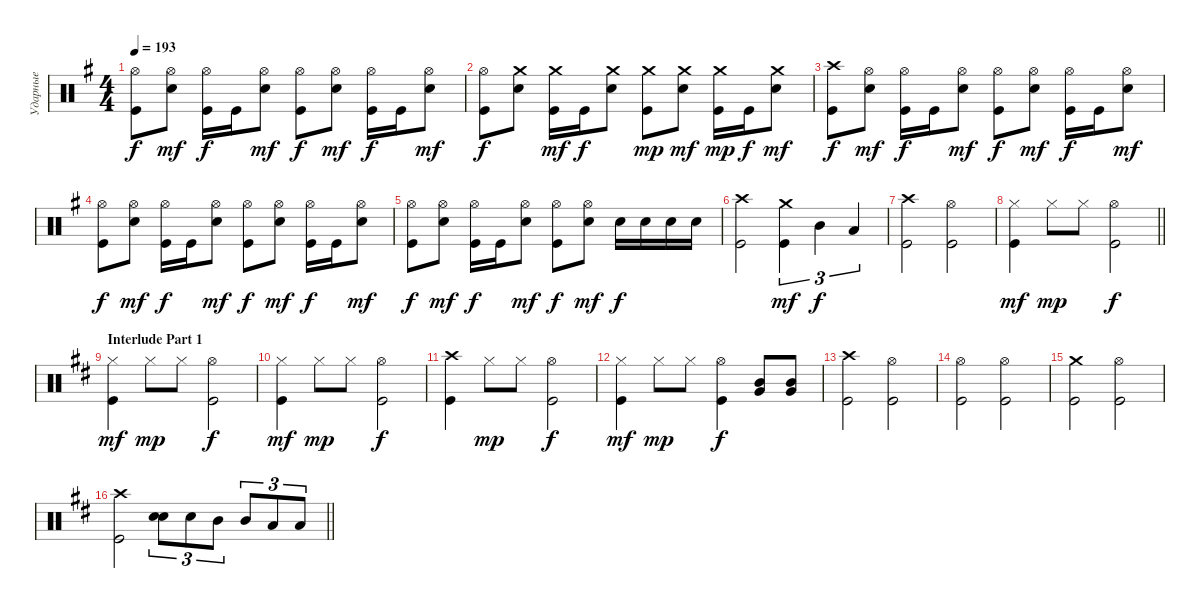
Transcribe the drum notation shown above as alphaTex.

\track ("Ударные" "Ударные") {instrument percussion}
\staff {score}
\articulation defaults
\ts (4 4)
\tempo 193
\clef neutral
\ks eminor
("Kick (hit)" "Hi-Hat (open)").8{dy f} ("Snare (hit) 2" "Hi-Hat (open)").8{dy mf} ("Kick (hit)" "Hi-Hat (open)").16{dy f} "Kick (hit)".16 ("Snare (hit) 2" "Hi-Hat (open)").8{dy mf} ("Kick (hit)" "Hi-Hat (open)").8{dy f} ("Snare (hit) 2" "Hi-Hat (open)").8{dy mf} ("Kick (hit)" "Hi-Hat (open)").16{dy f} "Kick (hit)".16 ("Snare (hit) 2" "Hi-Hat (open)").8{dy mf} |
("Kick (hit)" "Hi-Hat (open)").8{dy f} ("Snare (hit) 2" "Crash medium (hit)").8 ("Kick (hit)" "Crash medium (hit)").16{dy mf} "Kick (hit)".16{dy f} ("Snare (hit) 2" "Crash medium (hit)").8 ("Kick (hit)" "Crash medium (hit)").8{dy mp} ("Snare (hit) 2" "Crash medium (hit)").8{dy mf} ("Kick (hit)" "Crash medium (hit)").16{dy mp} "Kick (hit)".16{dy f} ("Snare (hit) 2" "Crash medium (hit)").8{dy mf} |
("Kick (hit)" "Crash high (hit)").8{dy f} ("Snare (hit) 2" "Hi-Hat (open)").8{dy mf} ("Kick (hit)" "Hi-Hat (open)").16{dy f} "Kick (hit)".16 ("Snare (hit) 2" "Hi-Hat (open)").8{dy mf} ("Kick (hit)" "Hi-Hat (open)").8{dy f} ("Snare (hit) 2" "Hi-Hat (open)").8{dy mf} ("Kick (hit)" "Hi-Hat (open)").16{dy f} "Kick (hit)".16 ("Snare (hit) 2" "Hi-Hat (open)").8{dy mf} |
("Kick (hit)" "Hi-Hat (open)").8{dy f} ("Snare (hit) 2" "Hi-Hat (open)").8{dy mf} ("Kick (hit)" "Hi-Hat (open)").16{dy f} "Kick (hit)".16 ("Snare (hit) 2" "Hi-Hat (open)").8{dy mf} ("Kick (hit)" "Hi-Hat (open)").8{dy f} ("Snare (hit) 2" "Hi-Hat (open)").8{dy mf} ("Kick (hit)" "Hi-Hat (open)").16{dy f} "Kick (hit)".16 ("Snare (hit) 2" "Hi-Hat (open)").8{dy mf} |
("Kick (hit)" "Hi-Hat (open)").8{dy f} ("Snare (hit) 2" "Hi-Hat (open)").8{dy mf} ("Kick (hit)" "Hi-Hat (open)").16{dy f} "Kick (hit)".16 ("Snare (hit) 2" "Hi-Hat (open)").8{dy mf} ("Kick (hit)" "Hi-Hat (open)").8{dy f} ("Snare (hit) 2" "Hi-Hat (open)").8{dy mf} "Snare (hit) 2".16{dy f} "Snare (hit) 2".16 "Snare (hit) 2".16 "Snare (hit) 2".16 |
("Kick (hit)" "Crash high (hit)").2 ("Kick (hit)" "Crash medium (hit)").4{tu (3 2) dy mf} "Mid Tom (hit)".4{tu (3 2) dy f} "Low Tom (hit)".4{tu (3 2)} |
("Kick (hit)" "Crash high (hit)").2 ("Hi-Hat (open)" "Kick (hit)").2 |
\barLineRight lightlight
("Hi-Hat (closed)" "Kick (hit)").4{dy mf} "Hi-Hat (closed)".8{dy mp} "Hi-Hat (closed)".8 ("Hi-Hat (open)" "Kick (hit)").2{dy f} |
\section ("" "Interlude Part 1")
\ks bminor
("Hi-Hat (closed)" "Kick (hit)").4{dy mf} "Hi-Hat (closed)".8{dy mp} "Hi-Hat (closed)".8 ("Hi-Hat (open)" "Kick (hit)").2{dy f} |
("Hi-Hat (closed)" "Kick (hit)").4{dy mf} "Hi-Hat (closed)".8{dy mp} "Hi-Hat (closed)".8 ("Hi-Hat (open)" "Kick (hit)").2{dy f} |
("Crash high (hit)" "Kick (hit)").4 "Hi-Hat (closed)".8{dy mp} "Hi-Hat (closed)".8 ("Hi-Hat (open)" "Kick (hit)").2{dy f} |
("Hi-Hat (closed)" "Kick (hit)").4{dy mf} "Hi-Hat (closed)".8{dy mp} "Hi-Hat (closed)".8 ("Hi-Hat (open)" "Kick (hit)").4{dy f} ("Mid Tom (hit)" "Very Low Tom (hit)").8{bd 240} ("Mid Tom (hit)" "Very Low Tom (hit)").8{bd 240} |
("Kick (hit)" "Crash high (hit)").2 ("Kick (hit)" "Hi-Hat (open)").2 |
("Hi-Hat (open)" "Kick (hit)").2 ("Hi-Hat (open)" "Kick (hit)").2 |
("Kick (hit)" "Crash medium (hit)").2 ("Kick (hit)" "Hi-Hat (open)").2 |
\barLineRight lightlight
("Kick (hit)" "Crash high (hit)").2 ("Snare (hit) 2" "Snare (hit) 2").8{tu (3 2) bd 240} "Snare (hit) 2".8{tu (3 2)} "Mid Tom (hit)".8{tu (3 2)} "Mid Tom (hit)".8{tu (3 2)} "Low Tom (hit)".8{tu (3 2)} "Low Tom (hit)".8{tu (3 2)}
